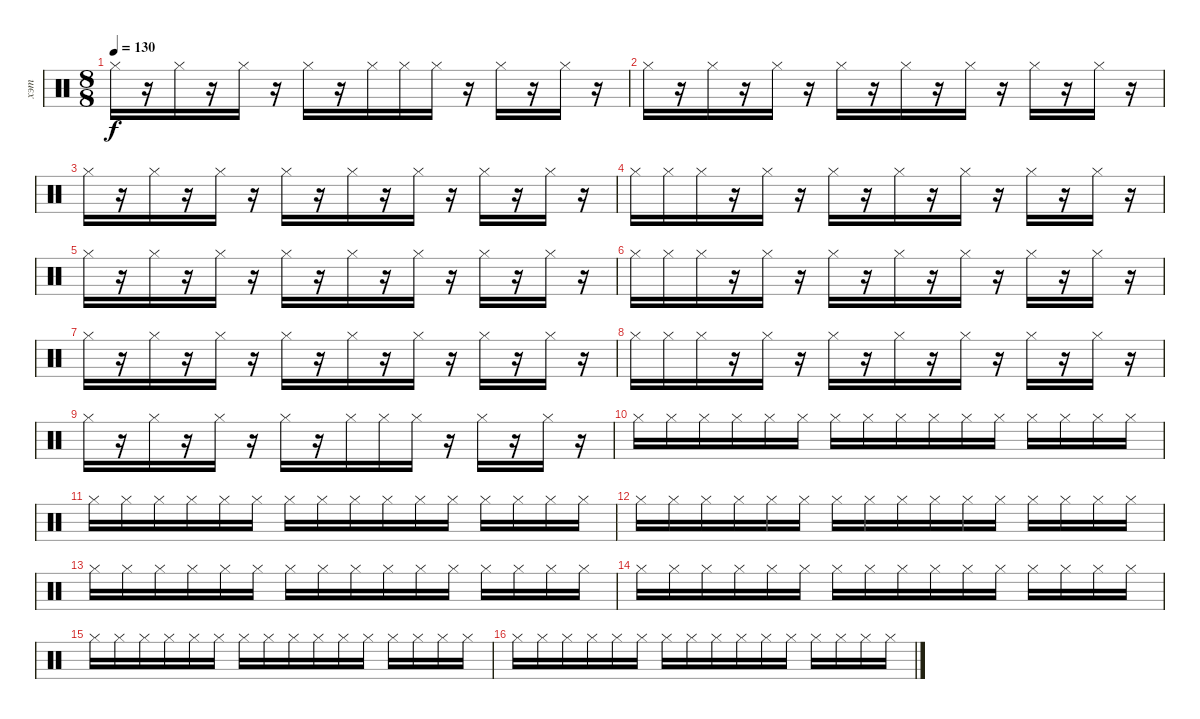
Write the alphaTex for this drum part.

\track ("хэт" "хэт") {instrument percussion}
\staff {score}
\articulation defaults
\ts (8 8)
\tempo 130
\clef neutral
\ks c "Hi-Hat (closed)".16{dy f}
r.16 "Hi-Hat (closed)".16 r.16 "Hi-Hat (closed)".16 r.16 "Hi-Hat (closed)".16 r.16 "Hi-Hat (closed)".16 "Hi-Hat (closed)".16 "Hi-Hat (closed)".16 r.16 "Hi-Hat (closed)".16 r.16 "Hi-Hat (closed)".16 r.16 |
"Hi-Hat (closed)".16 r.16 "Hi-Hat (closed)".16 r.16 "Hi-Hat (closed)".16 r.16 "Hi-Hat (closed)".16 r.16 "Hi-Hat (closed)".16 r.16 "Hi-Hat (closed)".16 r.16 "Hi-Hat (closed)".16 r.16 "Hi-Hat (closed)".16 r.16 |
"Hi-Hat (closed)".16 r.16 "Hi-Hat (closed)".16 r.16 "Hi-Hat (closed)".16 r.16 "Hi-Hat (closed)".16 r.16 "Hi-Hat (closed)".16 r.16 "Hi-Hat (closed)".16 r.16 "Hi-Hat (closed)".16 r.16 "Hi-Hat (closed)".16 r.16 |
"Hi-Hat (closed)".16 "Hi-Hat (closed)".16 "Hi-Hat (closed)".16 r.16 "Hi-Hat (closed)".16 r.16 "Hi-Hat (closed)".16 r.16 "Hi-Hat (closed)".16 r.16 "Hi-Hat (closed)".16 r.16 "Hi-Hat (closed)".16 r.16 "Hi-Hat (closed)".16 r.16 |
"Hi-Hat (closed)".16 r.16 "Hi-Hat (closed)".16 r.16 "Hi-Hat (closed)".16 r.16 "Hi-Hat (closed)".16 r.16 "Hi-Hat (closed)".16 r.16 "Hi-Hat (closed)".16 r.16 "Hi-Hat (closed)".16 r.16 "Hi-Hat (closed)".16 r.16 |
"Hi-Hat (closed)".16 "Hi-Hat (closed)".16 "Hi-Hat (closed)".16 r.16 "Hi-Hat (closed)".16 r.16 "Hi-Hat (closed)".16 r.16 "Hi-Hat (closed)".16 r.16 "Hi-Hat (closed)".16 r.16 "Hi-Hat (closed)".16 r.16 "Hi-Hat (closed)".16 r.16 |
"Hi-Hat (closed)".16 r.16 "Hi-Hat (closed)".16 r.16 "Hi-Hat (closed)".16 r.16 "Hi-Hat (closed)".16 r.16 "Hi-Hat (closed)".16 r.16 "Hi-Hat (closed)".16 r.16 "Hi-Hat (closed)".16 r.16 "Hi-Hat (closed)".16 r.16 |
"Hi-Hat (closed)".16 "Hi-Hat (closed)".16 "Hi-Hat (closed)".16 r.16 "Hi-Hat (closed)".16 r.16 "Hi-Hat (closed)".16 r.16 "Hi-Hat (closed)".16 r.16 "Hi-Hat (closed)".16 r.16 "Hi-Hat (closed)".16 r.16 "Hi-Hat (closed)".16 r.16 |
"Hi-Hat (closed)".16 r.16 "Hi-Hat (closed)".16 r.16 "Hi-Hat (closed)".16 r.16 "Hi-Hat (closed)".16 r.16 "Hi-Hat (closed)".16 "Hi-Hat (closed)".16 "Hi-Hat (closed)".16 r.16 "Hi-Hat (closed)".16 r.16 "Hi-Hat (closed)".16 r.16 |
"Hi-Hat (closed)".16 "Hi-Hat (closed)".16 "Hi-Hat (closed)".16 "Hi-Hat (closed)".16 "Hi-Hat (closed)".16 "Hi-Hat (closed)".16 "Hi-Hat (closed)".16 "Hi-Hat (closed)".16 "Hi-Hat (closed)".16 "Hi-Hat (closed)".16 "Hi-Hat (closed)".16 "Hi-Hat (closed)".16 "Hi-Hat (closed)".16 "Hi-Hat (closed)".16 "Hi-Hat (closed)".16 "Hi-Hat (closed)".16 |
"Hi-Hat (closed)".16 "Hi-Hat (closed)".16 "Hi-Hat (closed)".16 "Hi-Hat (closed)".16 "Hi-Hat (closed)".16 "Hi-Hat (closed)".16 "Hi-Hat (closed)".16 "Hi-Hat (closed)".16 "Hi-Hat (closed)".16 "Hi-Hat (closed)".16 "Hi-Hat (closed)".16 "Hi-Hat (closed)".16 "Hi-Hat (closed)".16 "Hi-Hat (closed)".16 "Hi-Hat (closed)".16 "Hi-Hat (closed)".16 |
"Hi-Hat (closed)".16 "Hi-Hat (closed)".16 "Hi-Hat (closed)".16 "Hi-Hat (closed)".16 "Hi-Hat (closed)".16 "Hi-Hat (closed)".16 "Hi-Hat (closed)".16 "Hi-Hat (closed)".16 "Hi-Hat (closed)".16 "Hi-Hat (closed)".16 "Hi-Hat (closed)".16 "Hi-Hat (closed)".16 "Hi-Hat (closed)".16 "Hi-Hat (closed)".16 "Hi-Hat (closed)".16 "Hi-Hat (closed)".16 |
"Hi-Hat (closed)".16 "Hi-Hat (closed)".16 "Hi-Hat (closed)".16 "Hi-Hat (closed)".16 "Hi-Hat (closed)".16 "Hi-Hat (closed)".16 "Hi-Hat (closed)".16 "Hi-Hat (closed)".16 "Hi-Hat (closed)".16 "Hi-Hat (closed)".16 "Hi-Hat (closed)".16 "Hi-Hat (closed)".16 "Hi-Hat (closed)".16 "Hi-Hat (closed)".16 "Hi-Hat (closed)".16 "Hi-Hat (closed)".16 |
"Hi-Hat (closed)".16 "Hi-Hat (closed)".16 "Hi-Hat (closed)".16 "Hi-Hat (closed)".16 "Hi-Hat (closed)".16 "Hi-Hat (closed)".16 "Hi-Hat (closed)".16 "Hi-Hat (closed)".16 "Hi-Hat (closed)".16 "Hi-Hat (closed)".16 "Hi-Hat (closed)".16 "Hi-Hat (closed)".16 "Hi-Hat (closed)".16 "Hi-Hat (closed)".16 "Hi-Hat (closed)".16 "Hi-Hat (closed)".16 |
"Hi-Hat (closed)".16 "Hi-Hat (closed)".16 "Hi-Hat (closed)".16 "Hi-Hat (closed)".16 "Hi-Hat (closed)".16 "Hi-Hat (closed)".16 "Hi-Hat (closed)".16 "Hi-Hat (closed)".16 "Hi-Hat (closed)".16 "Hi-Hat (closed)".16 "Hi-Hat (closed)".16 "Hi-Hat (closed)".16 "Hi-Hat (closed)".16 "Hi-Hat (closed)".16 "Hi-Hat (closed)".16 "Hi-Hat (closed)".16 |
"Hi-Hat (closed)".16 "Hi-Hat (closed)".16 "Hi-Hat (closed)".16 "Hi-Hat (closed)".16 "Hi-Hat (closed)".16 "Hi-Hat (closed)".16 "Hi-Hat (closed)".16 "Hi-Hat (closed)".16 "Hi-Hat (closed)".16 "Hi-Hat (closed)".16 "Hi-Hat (closed)".16 "Hi-Hat (closed)".16 "Hi-Hat (closed)".16 "Hi-Hat (closed)".16 "Hi-Hat (closed)".16 "Hi-Hat (closed)".16
